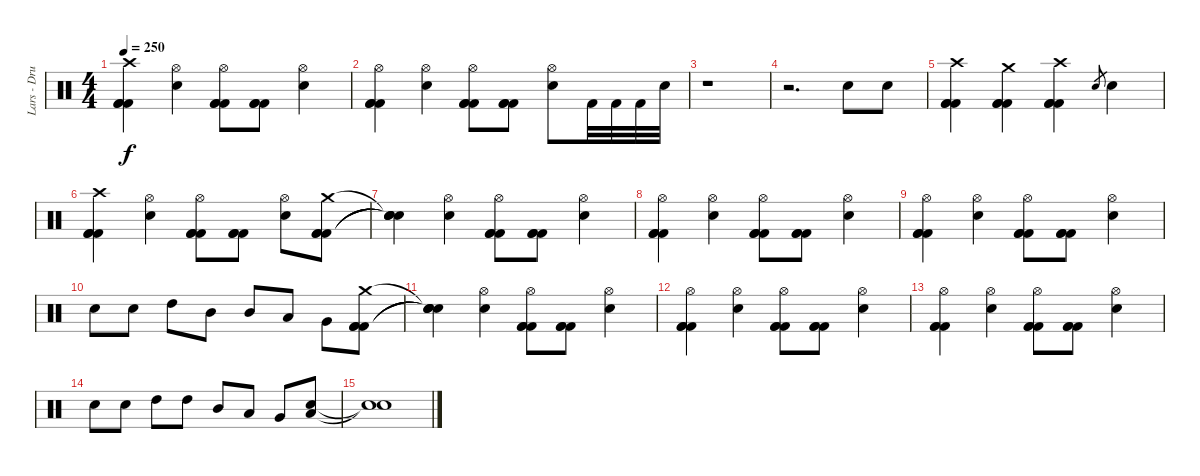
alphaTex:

\track ("Lars - Drums" "Lars - Dru") {instrument percussion}
\staff {score}
\articulation defaults
\ts (4 4)
\tempo 250
\clef neutral
\ks c
("Crash high (hit)" "Kick (hit) 2" "Kick (hit) 2" "Kick (hit) 2").4{dy f} ("Hi-Hat (open)" "Snare (hit) 2").4 ("Hi-Hat (open)" "Kick (hit) 2" "Kick (hit) 2" "Kick (hit) 2").8 ("Kick (hit) 2" "Kick (hit) 2" "Kick (hit) 2").8 ("Hi-Hat (open)" "Snare (hit) 2").4 |
("Hi-Hat (open)" "Kick (hit) 2" "Kick (hit) 2" "Kick (hit) 2").4 ("Hi-Hat (open)" "Snare (hit) 2").4 ("Hi-Hat (open)" "Kick (hit) 2" "Kick (hit) 2" "Kick (hit) 2").8 ("Kick (hit) 2" "Kick (hit) 2" "Kick (hit) 2").8 ("Hi-Hat (open)" "Snare (hit) 2").8 "Kick (hit) 2".32 "Kick (hit) 2".32 "Kick (hit) 2".32 "Snare (hit) 2".32 |
r.1 |
r.2{d} "Snare (hit) 2".8 "Snare (hit) 2".8 |
("Crash high (hit)" "Kick (hit) 2" "Kick (hit) 2" "Kick (hit) 2").4 ("Crash medium (hit)" "Kick (hit) 2" "Kick (hit) 2" "Kick (hit) 2").4 ("Crash high (hit)" "Kick (hit) 2" "Kick (hit) 2" "Kick (hit) 2").4 "Snare (hit) 2".8{gr} "Snare (hit) 2".4 |
("Crash high (hit)" "Kick (hit) 2" "Kick (hit) 2" "Kick (hit) 2").4 ("Hi-Hat (open)" "Snare (hit) 2").4 ("Hi-Hat (open)" "Kick (hit) 2" "Kick (hit) 2" "Kick (hit) 2").8 ("Kick (hit) 2" "Kick (hit) 2" "Kick (hit) 2").8 ("Hi-Hat (open)" "Snare (hit) 2").8 ("Crash medium (hit)" "Kick (hit) 2" "Kick (hit) 2" "Kick (hit) 2").8 |
("Snare (hit)"{t} "Snare (hit)"{t} "Snare (hit)"{t} "Snare (hit)"{t}).4 ("Hi-Hat (open)" "Snare (hit) 2").4 ("Hi-Hat (open)" "Kick (hit) 2" "Kick (hit) 2" "Kick (hit) 2").8 ("Kick (hit) 2" "Kick (hit) 2" "Kick (hit) 2").8 ("Hi-Hat (open)" "Snare (hit) 2").4 |
("Hi-Hat (open)" "Kick (hit) 2" "Kick (hit) 2" "Kick (hit) 2").4 ("Hi-Hat (open)" "Snare (hit) 2").4 ("Hi-Hat (open)" "Kick (hit) 2" "Kick (hit) 2" "Kick (hit) 2").8 ("Kick (hit) 2" "Kick (hit) 2" "Kick (hit) 2").8 ("Hi-Hat (open)" "Snare (hit) 2").4 |
("Hi-Hat (open)" "Kick (hit) 2" "Kick (hit) 2" "Kick (hit) 2").4 ("Hi-Hat (open)" "Snare (hit) 2").4 ("Hi-Hat (open)" "Kick (hit) 2" "Kick (hit) 2" "Kick (hit) 2").8 ("Kick (hit) 2" "Kick (hit) 2" "Kick (hit) 2").8 ("Hi-Hat (open)" "Snare (hit) 2").4 |
"Snare (hit) 2".8 "Snare (hit) 2".8 "High Tom (hit)".8 "Mid Tom (hit)".8 "Mid Tom (hit)".8 "Low Tom (hit)".8 "Very Low Tom (hit)".8 ("Crash medium (hit)" "Kick (hit) 2" "Kick (hit) 2" "Kick (hit) 2").8 |
("Snare (hit)"{t} "Snare (hit)"{t} "Snare (hit)"{t} "Snare (hit)"{t}).4 ("Hi-Hat (open)" "Snare (hit) 2").4 ("Hi-Hat (open)" "Kick (hit) 2" "Kick (hit) 2" "Kick (hit) 2").8 ("Kick (hit) 2" "Kick (hit) 2" "Kick (hit) 2").8 ("Hi-Hat (open)" "Snare (hit) 2").4 |
("Hi-Hat (open)" "Kick (hit) 2" "Kick (hit) 2" "Kick (hit) 2").4 ("Hi-Hat (open)" "Snare (hit) 2").4 ("Hi-Hat (open)" "Kick (hit) 2" "Kick (hit) 2" "Kick (hit) 2").8 ("Kick (hit) 2" "Kick (hit) 2" "Kick (hit) 2").8 ("Hi-Hat (open)" "Snare (hit) 2").4 |
("Hi-Hat (open)" "Kick (hit) 2" "Kick (hit) 2" "Kick (hit) 2").4 ("Hi-Hat (open)" "Snare (hit) 2").4 ("Hi-Hat (open)" "Kick (hit) 2" "Kick (hit) 2" "Kick (hit) 2").8 ("Kick (hit) 2" "Kick (hit) 2" "Kick (hit) 2").8 ("Hi-Hat (open)" "Snare (hit) 2").4 |
"Snare (hit) 2".8 "Snare (hit) 2".8 "High Tom (hit)".8 "High Tom (hit)".8 "Mid Tom (hit)".8 "Low Tom (hit)".8 "Very Low Tom (hit)".8 ("Snare (hit) 2" "Low Floor Tom (hit)").8 |
("Snare (hit)"{t} "Snare (hit)"{t}).1
